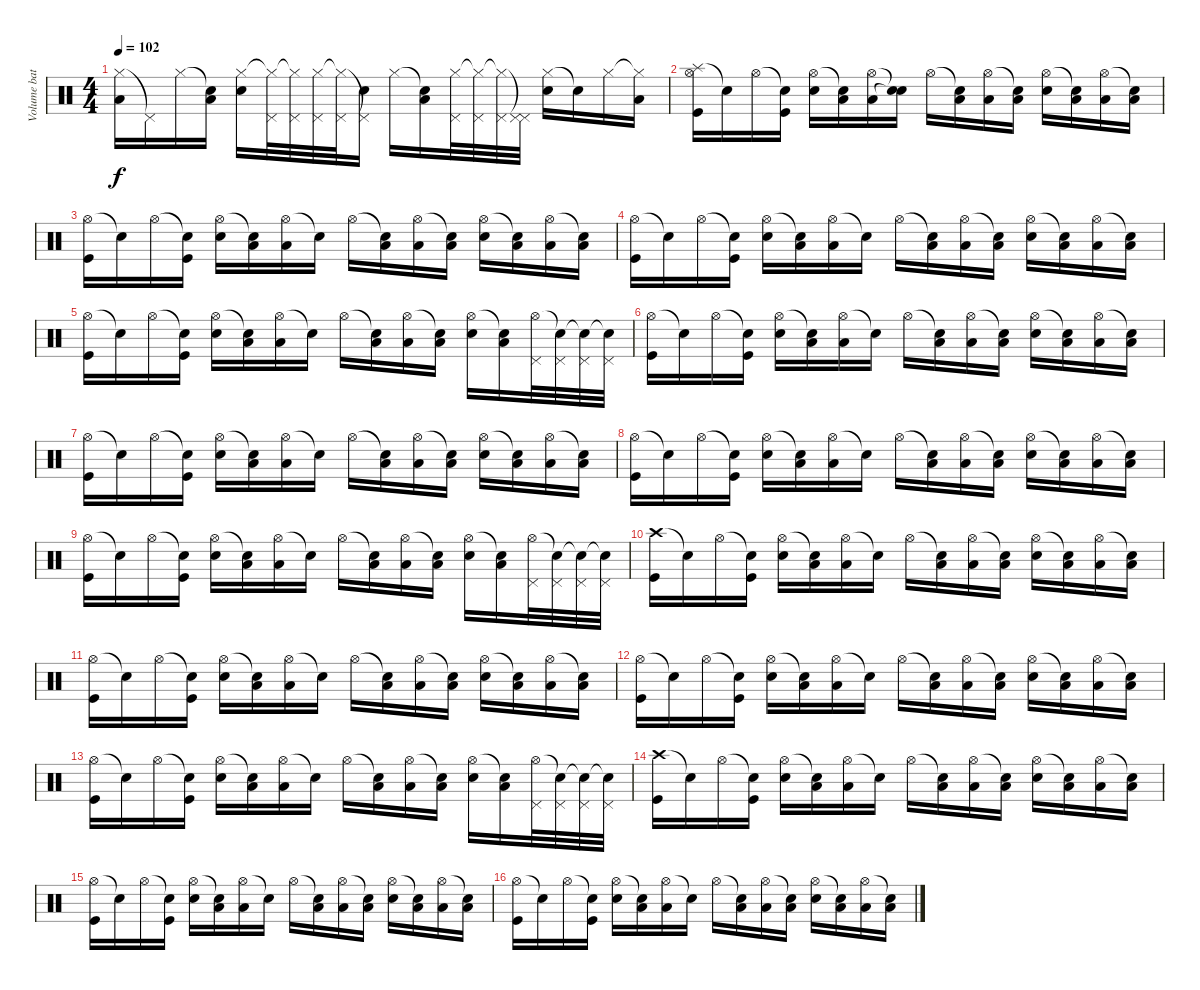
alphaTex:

\track ("Volume batera " "Volume bat") {instrument percussion}
\staff {score}
\articulation defaults
\ts (4 4)
\tempo 102
\clef neutral
\ks c
("Hi-Hat (closed)" "Low Tom (hit)").16{dy f} "Pedal Hi-Hat (hit)"{t}.16 "Hi-Hat (closed)".16 ("Snare (hit)"{t} "Low Tom (hit)").16 ("Hi-Hat (closed)" "Snare (hit) 2").16 ("Hi-Hat (closed)"{t} "Pedal Hi-Hat (hit)").32 ("Hi-Hat (closed)"{t} "Pedal Hi-Hat (hit)").32 ("Hi-Hat (closed)" "Pedal Hi-Hat (hit)").32 ("Hi-Hat (closed)"{t} "Pedal Hi-Hat (hit)").32 ("Pedal Hi-Hat (hit)"{t} "Snare (hit) 2").16 "Hi-Hat (closed)".16 ("Snare (hit)"{t} "Low Tom (hit)").16 ("Hi-Hat (closed)" "Pedal Hi-Hat (hit)").32 ("Hi-Hat (closed)"{t} "Pedal Hi-Hat (hit)").32 ("Hi-Hat (closed)"{t} "Pedal Hi-Hat (hit)").32 ("Pedal Hi-Hat (hit)"{t} "Pedal Hi-Hat (hit)").32 ("Hi-Hat (closed)" "Snare (hit) 2").16 "Snare (hit)"{t}.16 "Hi-Hat (closed)".16 ("Hi-Hat (closed)"{t} "Low Tom (hit)").16 |
("Splash (hit)" "Hi-Hat (open)" "Kick (hit)").16 "Snare (hit)"{t}.16 "Hi-Hat (open)".16 ("Snare (hit)"{t} "Kick (hit)").16 ("Hi-Hat (open)" "Snare (hit) 2").16 ("Snare (hit)"{t} "Low Tom (hit)").16 ("Hi-Hat (open)" "Low Tom (hit)").16 ("Snare (hit)"{t} "Snare (hit)"{t}).16 "Hi-Hat (open)".16 ("Snare (hit)"{t} "Low Tom (hit)").16 ("Hi-Hat (open)" "Low Tom (hit)").16 ("Snare (hit)"{t} "Low Tom (hit)").16 ("Hi-Hat (open)" "Snare (hit) 2").16 ("Snare (hit)"{t} "Low Tom (hit)").16 ("Hi-Hat (open)" "Low Tom (hit)").16 ("Snare (hit)"{t} "Low Tom (hit)").16 |
("Hi-Hat (open)" "Kick (hit)").16 "Snare (hit)"{t}.16 "Hi-Hat (open)".16 ("Snare (hit)"{t} "Kick (hit)").16 ("Hi-Hat (open)" "Snare (hit) 2").16 ("Snare (hit)"{t} "Low Tom (hit)").16 ("Hi-Hat (open)" "Low Tom (hit)").16 "Snare (hit)"{t}.16 "Hi-Hat (open)".16 ("Snare (hit)"{t} "Low Tom (hit)").16 ("Hi-Hat (open)" "Low Tom (hit)").16 ("Snare (hit)"{t} "Low Tom (hit)").16 ("Hi-Hat (open)" "Snare (hit) 2").16 ("Snare (hit)"{t} "Low Tom (hit)").16 ("Hi-Hat (open)" "Low Tom (hit)").16 ("Snare (hit)"{t} "Low Tom (hit)").16 |
("Hi-Hat (open)" "Kick (hit)").16 "Snare (hit)"{t}.16 "Hi-Hat (open)".16 ("Snare (hit)"{t} "Kick (hit)").16 ("Hi-Hat (open)" "Snare (hit) 2").16 ("Snare (hit)"{t} "Low Tom (hit)").16 ("Hi-Hat (open)" "Low Tom (hit)").16 "Snare (hit)"{t}.16 "Hi-Hat (open)".16 ("Snare (hit)"{t} "Low Tom (hit)").16 ("Hi-Hat (open)" "Low Tom (hit)").16 ("Snare (hit)"{t} "Low Tom (hit)").16 ("Hi-Hat (open)" "Snare (hit) 2").16 ("Snare (hit)"{t} "Low Tom (hit)").16 ("Hi-Hat (open)" "Low Tom (hit)").16 ("Snare (hit)"{t} "Low Tom (hit)").16 |
("Hi-Hat (open)" "Kick (hit)").16 "Snare (hit)"{t}.16 "Hi-Hat (open)".16 ("Snare (hit)"{t} "Kick (hit)").16 ("Hi-Hat (open)" "Snare (hit) 2").16 ("Snare (hit)"{t} "Low Tom (hit)").16 ("Hi-Hat (open)" "Low Tom (hit)").16 "Snare (hit)"{t}.16 "Hi-Hat (open)".16 ("Snare (hit)"{t} "Low Tom (hit)").16 ("Hi-Hat (open)" "Low Tom (hit)").16 ("Snare (hit)"{t} "Low Tom (hit)").16 ("Hi-Hat (open)" "Snare (hit) 2").16 ("Snare (hit)"{t} "Low Tom (hit)").16 ("Hi-Hat (open)" "Pedal Hi-Hat (hit)").32 ("Snare (hit)"{t} "Pedal Hi-Hat (hit)").32 ("Snare (hit)"{t} "Pedal Hi-Hat (hit)").32 ("Snare (hit)"{t} "Pedal Hi-Hat (hit)").32 |
("Hi-Hat (open)" "Kick (hit)").16 "Snare (hit)"{t}.16 "Hi-Hat (open)".16 ("Snare (hit)"{t} "Kick (hit)").16 ("Hi-Hat (open)" "Snare (hit) 2").16 ("Snare (hit)"{t} "Low Tom (hit)").16 ("Hi-Hat (open)" "Low Tom (hit)").16 "Snare (hit)"{t}.16 "Hi-Hat (open)".16 ("Snare (hit)"{t} "Low Tom (hit)").16 ("Hi-Hat (open)" "Low Tom (hit)").16 ("Snare (hit)"{t} "Low Tom (hit)").16 ("Hi-Hat (open)" "Snare (hit) 2").16 ("Snare (hit)"{t} "Low Tom (hit)").16 ("Hi-Hat (open)" "Low Tom (hit)").16 ("Snare (hit)"{t} "Low Tom (hit)").16 |
("Hi-Hat (open)" "Kick (hit)").16 "Snare (hit)"{t}.16 "Hi-Hat (open)".16 ("Snare (hit)"{t} "Kick (hit)").16 ("Hi-Hat (open)" "Snare (hit) 2").16 ("Snare (hit)"{t} "Low Tom (hit)").16 ("Hi-Hat (open)" "Low Tom (hit)").16 "Snare (hit)"{t}.16 "Hi-Hat (open)".16 ("Snare (hit)"{t} "Low Tom (hit)").16 ("Hi-Hat (open)" "Low Tom (hit)").16 ("Snare (hit)"{t} "Low Tom (hit)").16 ("Hi-Hat (open)" "Snare (hit) 2").16 ("Snare (hit)"{t} "Low Tom (hit)").16 ("Hi-Hat (open)" "Low Tom (hit)").16 ("Snare (hit)"{t} "Low Tom (hit)").16 |
("Hi-Hat (open)" "Kick (hit)").16 "Snare (hit)"{t}.16 "Hi-Hat (open)".16 ("Snare (hit)"{t} "Kick (hit)").16 ("Hi-Hat (open)" "Snare (hit) 2").16 ("Snare (hit)"{t} "Low Tom (hit)").16 ("Hi-Hat (open)" "Low Tom (hit)").16 "Snare (hit)"{t}.16 "Hi-Hat (open)".16 ("Snare (hit)"{t} "Low Tom (hit)").16 ("Hi-Hat (open)" "Low Tom (hit)").16 ("Snare (hit)"{t} "Low Tom (hit)").16 ("Hi-Hat (open)" "Snare (hit) 2").16 ("Snare (hit)"{t} "Low Tom (hit)").16 ("Hi-Hat (open)" "Low Tom (hit)").16 ("Snare (hit)"{t} "Low Tom (hit)").16 |
("Hi-Hat (open)" "Kick (hit)").16 "Snare (hit)"{t}.16 "Hi-Hat (open)".16 ("Snare (hit)"{t} "Kick (hit)").16 ("Hi-Hat (open)" "Snare (hit) 2").16 ("Snare (hit)"{t} "Low Tom (hit)").16 ("Hi-Hat (open)" "Low Tom (hit)").16 "Snare (hit)"{t}.16 "Hi-Hat (open)".16 ("Snare (hit)"{t} "Low Tom (hit)").16 ("Hi-Hat (open)" "Low Tom (hit)").16 ("Snare (hit)"{t} "Low Tom (hit)").16 ("Hi-Hat (open)" "Snare (hit) 2").16 ("Snare (hit)"{t} "Low Tom (hit)").16 ("Hi-Hat (open)" "Pedal Hi-Hat (hit)").32 ("Snare (hit)"{t} "Pedal Hi-Hat (hit)").32 ("Snare (hit)"{t} "Pedal Hi-Hat (hit)").32 ("Snare (hit)"{t} "Pedal Hi-Hat (hit)").32 |
("Crash high (hit)" "Kick (hit)").16 "Snare (hit)"{t}.16 "Hi-Hat (open)".16 ("Snare (hit)"{t} "Kick (hit)").16 ("Hi-Hat (open)" "Snare (hit) 2").16 ("Snare (hit)"{t} "Low Tom (hit)").16 ("Hi-Hat (open)" "Low Tom (hit)").16 "Snare (hit)"{t}.16 "Hi-Hat (open)".16 ("Snare (hit)"{t} "Low Tom (hit)").16 ("Hi-Hat (open)" "Low Tom (hit)").16 ("Snare (hit)"{t} "Low Tom (hit)").16 ("Hi-Hat (open)" "Snare (hit) 2").16 ("Snare (hit)"{t} "Low Tom (hit)").16 ("Hi-Hat (open)" "Low Tom (hit)").16 ("Snare (hit)"{t} "Low Tom (hit)").16 |
("Hi-Hat (open)" "Kick (hit)").16 "Snare (hit)"{t}.16 "Hi-Hat (open)".16 ("Snare (hit)"{t} "Kick (hit)").16 ("Hi-Hat (open)" "Snare (hit) 2").16 ("Snare (hit)"{t} "Low Tom (hit)").16 ("Hi-Hat (open)" "Low Tom (hit)").16 "Snare (hit)"{t}.16 "Hi-Hat (open)".16 ("Snare (hit)"{t} "Low Tom (hit)").16 ("Hi-Hat (open)" "Low Tom (hit)").16 ("Snare (hit)"{t} "Low Tom (hit)").16 ("Hi-Hat (open)" "Snare (hit) 2").16 ("Snare (hit)"{t} "Low Tom (hit)").16 ("Hi-Hat (open)" "Low Tom (hit)").16 ("Snare (hit)"{t} "Low Tom (hit)").16 |
("Hi-Hat (open)" "Kick (hit)").16 "Snare (hit)"{t}.16 "Hi-Hat (open)".16 ("Snare (hit)"{t} "Kick (hit)").16 ("Hi-Hat (open)" "Snare (hit) 2").16 ("Snare (hit)"{t} "Low Tom (hit)").16 ("Hi-Hat (open)" "Low Tom (hit)").16 "Snare (hit)"{t}.16 "Hi-Hat (open)".16 ("Snare (hit)"{t} "Low Tom (hit)").16 ("Hi-Hat (open)" "Low Tom (hit)").16 ("Snare (hit)"{t} "Low Tom (hit)").16 ("Hi-Hat (open)" "Snare (hit) 2").16 ("Snare (hit)"{t} "Low Tom (hit)").16 ("Hi-Hat (open)" "Low Tom (hit)").16 ("Snare (hit)"{t} "Low Tom (hit)").16 |
("Hi-Hat (open)" "Kick (hit)").16 "Snare (hit)"{t}.16 "Hi-Hat (open)".16 ("Snare (hit)"{t} "Kick (hit)").16 ("Hi-Hat (open)" "Snare (hit) 2").16 ("Snare (hit)"{t} "Low Tom (hit)").16 ("Hi-Hat (open)" "Low Tom (hit)").16 "Snare (hit)"{t}.16 "Hi-Hat (open)".16 ("Snare (hit)"{t} "Low Tom (hit)").16 ("Hi-Hat (open)" "Low Tom (hit)").16 ("Snare (hit)"{t} "Low Tom (hit)").16 ("Hi-Hat (open)" "Snare (hit) 2").16 ("Snare (hit)"{t} "Low Tom (hit)").16 ("Hi-Hat (open)" "Pedal Hi-Hat (hit)").32 ("Snare (hit)"{t} "Pedal Hi-Hat (hit)").32 ("Snare (hit)"{t} "Pedal Hi-Hat (hit)").32 ("Snare (hit)"{t} "Pedal Hi-Hat (hit)").32 |
("Crash high (hit)" "Kick (hit)").16 "Snare (hit)"{t}.16 "Hi-Hat (open)".16 ("Snare (hit)"{t} "Kick (hit)").16 ("Hi-Hat (open)" "Snare (hit) 2").16 ("Snare (hit)"{t} "Low Tom (hit)").16 ("Hi-Hat (open)" "Low Tom (hit)").16 "Snare (hit)"{t}.16 "Hi-Hat (open)".16 ("Snare (hit)"{t} "Low Tom (hit)").16 ("Hi-Hat (open)" "Low Tom (hit)").16 ("Snare (hit)"{t} "Low Tom (hit)").16 ("Hi-Hat (open)" "Snare (hit) 2").16 ("Snare (hit)"{t} "Low Tom (hit)").16 ("Hi-Hat (open)" "Low Tom (hit)").16 ("Snare (hit)"{t} "Low Tom (hit)").16 |
("Hi-Hat (open)" "Kick (hit)").16 "Snare (hit)"{t}.16 "Hi-Hat (open)".16 ("Snare (hit)"{t} "Kick (hit)").16 ("Hi-Hat (open)" "Snare (hit) 2").16 ("Snare (hit)"{t} "Low Tom (hit)").16 ("Hi-Hat (open)" "Low Tom (hit)").16 "Snare (hit)"{t}.16 "Hi-Hat (open)".16 ("Snare (hit)"{t} "Low Tom (hit)").16 ("Hi-Hat (open)" "Low Tom (hit)").16 ("Snare (hit)"{t} "Low Tom (hit)").16 ("Hi-Hat (open)" "Snare (hit) 2").16 ("Snare (hit)"{t} "Low Tom (hit)").16 ("Hi-Hat (open)" "Low Tom (hit)").16 ("Snare (hit)"{t} "Low Tom (hit)").16 |
("Hi-Hat (open)" "Kick (hit)").16 "Snare (hit)"{t}.16 "Hi-Hat (open)".16 ("Snare (hit)"{t} "Kick (hit)").16 ("Hi-Hat (open)" "Snare (hit) 2").16 ("Snare (hit)"{t} "Low Tom (hit)").16 ("Hi-Hat (open)" "Low Tom (hit)").16 "Snare (hit)"{t}.16 "Hi-Hat (open)".16 ("Snare (hit)"{t} "Low Tom (hit)").16 ("Hi-Hat (open)" "Low Tom (hit)").16 ("Snare (hit)"{t} "Low Tom (hit)").16 ("Hi-Hat (open)" "Snare (hit) 2").16 ("Snare (hit)"{t} "Low Tom (hit)").16 ("Hi-Hat (open)" "Low Tom (hit)").16 ("Snare (hit)"{t} "Low Tom (hit)").16
